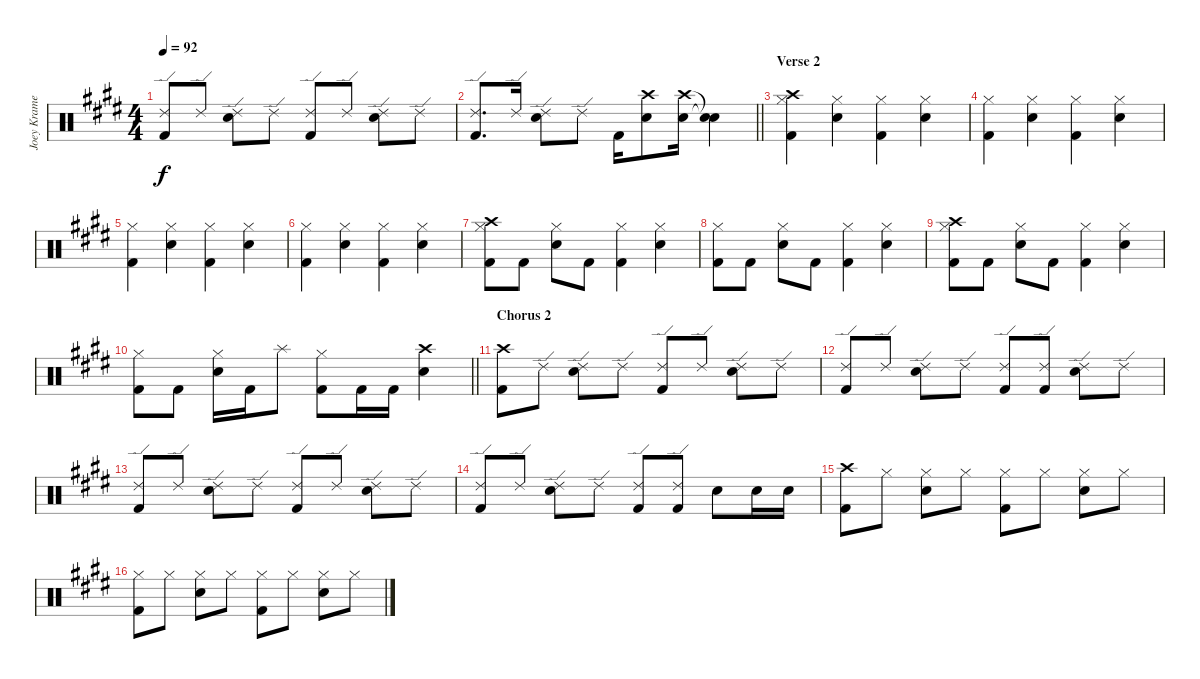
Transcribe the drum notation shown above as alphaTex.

\track ("Joey Kramer" "Joey Krame") {instrument percussion}
\staff {score}
\articulation defaults
\ts (4 4)
\tempo 92
\clef neutral
\ks e
("Ride (edge) 2" "Kick (hit) 2").8{dy f} "Ride (edge) 2".8 ("Ride (edge) 2" "Electric Snare (hit)").8 "Ride (edge) 2".8 ("Ride (edge) 2" "Kick (hit) 2").8 "Ride (edge) 2".8 ("Ride (edge) 2" "Electric Snare (hit)").8 "Ride (edge) 2".8 |
\barLineRight lightlight
\ks c#minor
("Ride (edge) 2" "Kick (hit) 2").8{d} "Ride (edge) 2".16 ("Ride (edge) 2" "Electric Snare (hit)").8 "Ride (edge) 2".8 "Kick (hit) 2".16 ("Crash high (hit)" "Electric Snare (hit)").8 ("Crash high (hit)" "Electric Snare (hit)").16 ("Snare (hit)"{t} "Snare (hit)"{t}).4 |
\section ("" "Verse 2")
\ks e
("Crash high (hit)" "Hi-Hat (closed)" "Kick (hit) 2").4 ("Hi-Hat (closed)" "Electric Snare (hit)").4 ("Hi-Hat (closed)" "Kick (hit) 2").4 ("Hi-Hat (closed)" "Electric Snare (hit)").4 |
\ks c#minor
("Hi-Hat (closed)" "Kick (hit) 2").4 ("Hi-Hat (closed)" "Electric Snare (hit)").4 ("Hi-Hat (closed)" "Kick (hit) 2").4 ("Hi-Hat (closed)" "Electric Snare (hit)").4 |
\ks e
("Hi-Hat (closed)" "Kick (hit) 2").4 ("Hi-Hat (closed)" "Electric Snare (hit)").4 ("Hi-Hat (closed)" "Kick (hit) 2").4 ("Hi-Hat (closed)" "Electric Snare (hit)").4 |
\ks c#minor
("Hi-Hat (closed)" "Kick (hit) 2").4 ("Hi-Hat (closed)" "Electric Snare (hit)").4 ("Hi-Hat (closed)" "Kick (hit) 2").4 ("Hi-Hat (closed)" "Electric Snare (hit)").4 |
\ks e
("Crash high (hit)" "Hi-Hat (closed)" "Kick (hit) 2").8 "Kick (hit) 2".8 ("Hi-Hat (closed)" "Electric Snare (hit)").8 "Kick (hit) 2".8 ("Hi-Hat (closed)" "Kick (hit) 2").4 ("Hi-Hat (closed)" "Electric Snare (hit)").4 |
\ks c#minor
("Hi-Hat (closed)" "Kick (hit) 2").8 "Kick (hit) 2".8 ("Hi-Hat (closed)" "Electric Snare (hit)").8 "Kick (hit) 2".8 ("Hi-Hat (closed)" "Kick (hit) 2").4 ("Hi-Hat (closed)" "Electric Snare (hit)").4 |
\ks e
("Crash high (hit)" "Hi-Hat (closed)" "Kick (hit) 2").8 "Kick (hit) 2".8 ("Hi-Hat (closed)" "Electric Snare (hit)").8 "Kick (hit) 2".8 ("Hi-Hat (closed)" "Kick (hit) 2").4 ("Hi-Hat (closed)" "Electric Snare (hit)").4 |
\barLineRight lightlight
\ks c#minor
("Hi-Hat (closed)" "Kick (hit) 2").8 "Kick (hit) 2".8 ("Hi-Hat (closed)" "Electric Snare (hit)").16 "Kick (hit) 2".16 "Splash (hit)".8 ("Hi-Hat (closed)" "Kick (hit) 2").8 "Kick (hit) 2".16 "Kick (hit) 2".16 ("Crash high (hit)" "Electric Snare (hit)").4 |
\section ("" "Chorus 2")
\ks e
("Crash high (hit)" "Kick (hit) 2").8 "Ride (edge) 2".8 ("Ride (edge) 2" "Electric Snare (hit)").8 "Ride (edge) 2".8 ("Ride (edge) 2" "Kick (hit) 2").8 "Ride (edge) 2".8 ("Ride (edge) 2" "Electric Snare (hit)").8 "Ride (edge) 2".8 |
\ks c#minor
("Ride (edge) 2" "Kick (hit) 2").8 "Ride (edge) 2".8 ("Ride (edge) 2" "Electric Snare (hit)").8 "Ride (edge) 2".8 ("Ride (edge) 2" "Kick (hit) 2").8 ("Ride (edge) 2" "Kick (hit) 2").8 ("Ride (edge) 2" "Electric Snare (hit)").8 "Ride (edge) 2".8 |
\ks e
("Ride (edge) 2" "Kick (hit) 2").8 "Ride (edge) 2".8 ("Ride (edge) 2" "Electric Snare (hit)").8 "Ride (edge) 2".8 ("Ride (edge) 2" "Kick (hit) 2").8 "Ride (edge) 2".8 ("Ride (edge) 2" "Electric Snare (hit)").8 "Ride (edge) 2".8 |
\ks c#minor
("Ride (edge) 2" "Kick (hit) 2").8 "Ride (edge) 2".8 ("Ride (edge) 2" "Electric Snare (hit)").8 "Ride (edge) 2".8 ("Ride (edge) 2" "Kick (hit) 2").8 ("Ride (edge) 2" "Kick (hit) 2").8 "Electric Snare (hit)".8 "Electric Snare (hit)".16 "Electric Snare (hit)".16 |
\ks e
("Crash high (hit)" "Kick (hit) 2").8 "Hi-Hat (closed)".8 ("Hi-Hat (closed)" "Electric Snare (hit)").8 "Hi-Hat (closed)".8 ("Hi-Hat (closed)" "Kick (hit) 2").8 "Hi-Hat (closed)".8 ("Hi-Hat (closed)" "Electric Snare (hit)").8 "Hi-Hat (closed)".8 |
\ks c#minor
("Hi-Hat (closed)" "Kick (hit) 2").8 "Hi-Hat (closed)".8 ("Hi-Hat (closed)" "Electric Snare (hit)").8 "Hi-Hat (closed)".8 ("Hi-Hat (closed)" "Kick (hit) 2").8 "Hi-Hat (closed)".8 ("Hi-Hat (closed)" "Electric Snare (hit)").8 "Hi-Hat (closed)".8
